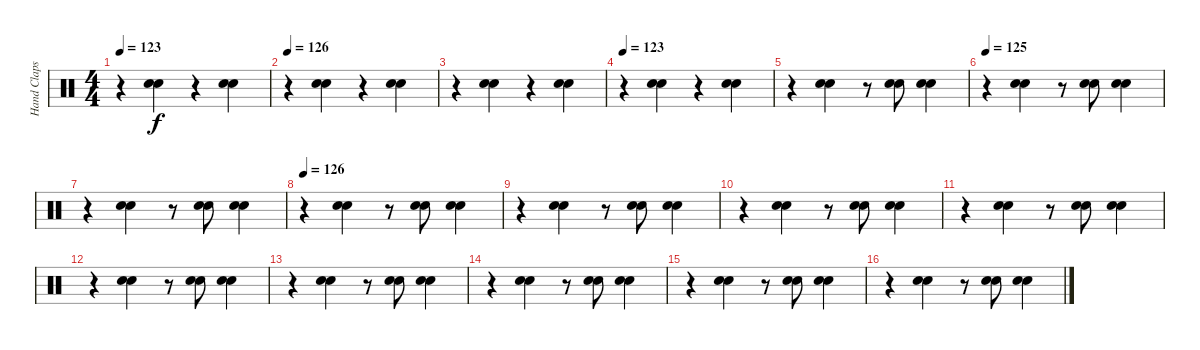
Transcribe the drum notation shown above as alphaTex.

\track ("Hand Claps" "Hand Claps") {instrument percussion}
\staff {score}
\articulation defaults
\ts (4 4)
\tempo 123
\clef neutral
\ks c
r.4{dy f} ("Hand Clap (hit)" "Hand Clap (hit)").4 r.4 ("Hand Clap (hit)" "Hand Clap (hit)").4 |
\tempo 126
r.4 ("Hand Clap (hit)" "Hand Clap (hit)").4 r.4 ("Hand Clap (hit)" "Hand Clap (hit)").4 |
r.4 ("Hand Clap (hit)" "Hand Clap (hit)").4 r.4 ("Hand Clap (hit)" "Hand Clap (hit)").4 |
\tempo 123
r.4 ("Hand Clap (hit)" "Hand Clap (hit)").4 r.4 ("Hand Clap (hit)" "Hand Clap (hit)").4 |
r.4 ("Hand Clap (hit)" "Hand Clap (hit)").4 r.8 ("Hand Clap (hit)" "Hand Clap (hit)").8 ("Hand Clap (hit)" "Hand Clap (hit)").4 |
\tempo 125
r.4 ("Hand Clap (hit)" "Hand Clap (hit)").4 r.8 ("Hand Clap (hit)" "Hand Clap (hit)").8 ("Hand Clap (hit)" "Hand Clap (hit)").4 |
r.4 ("Hand Clap (hit)" "Hand Clap (hit)").4 r.8 ("Hand Clap (hit)" "Hand Clap (hit)").8 ("Hand Clap (hit)" "Hand Clap (hit)").4 |
\tempo 126
r.4 ("Hand Clap (hit)" "Hand Clap (hit)").4 r.8 ("Hand Clap (hit)" "Hand Clap (hit)").8 ("Hand Clap (hit)" "Hand Clap (hit)").4 |
r.4 ("Hand Clap (hit)" "Hand Clap (hit)").4 r.8 ("Hand Clap (hit)" "Hand Clap (hit)").8 ("Hand Clap (hit)" "Hand Clap (hit)").4 |
r.4 ("Hand Clap (hit)" "Hand Clap (hit)").4 r.8 ("Hand Clap (hit)" "Hand Clap (hit)").8 ("Hand Clap (hit)" "Hand Clap (hit)").4 |
r.4 ("Hand Clap (hit)" "Hand Clap (hit)").4 r.8 ("Hand Clap (hit)" "Hand Clap (hit)").8 ("Hand Clap (hit)" "Hand Clap (hit)").4 |
r.4 ("Hand Clap (hit)" "Hand Clap (hit)").4 r.8 ("Hand Clap (hit)" "Hand Clap (hit)").8 ("Hand Clap (hit)" "Hand Clap (hit)").4 |
r.4 ("Hand Clap (hit)" "Hand Clap (hit)").4 r.8 ("Hand Clap (hit)" "Hand Clap (hit)").8 ("Hand Clap (hit)" "Hand Clap (hit)").4 |
r.4 ("Hand Clap (hit)" "Hand Clap (hit)").4 r.8 ("Hand Clap (hit)" "Hand Clap (hit)").8 ("Hand Clap (hit)" "Hand Clap (hit)").4 |
r.4 ("Hand Clap (hit)" "Hand Clap (hit)").4 r.8 ("Hand Clap (hit)" "Hand Clap (hit)").8 ("Hand Clap (hit)" "Hand Clap (hit)").4 |
r.4 ("Hand Clap (hit)" "Hand Clap (hit)").4 r.8 ("Hand Clap (hit)" "Hand Clap (hit)").8 ("Hand Clap (hit)" "Hand Clap (hit)").4
